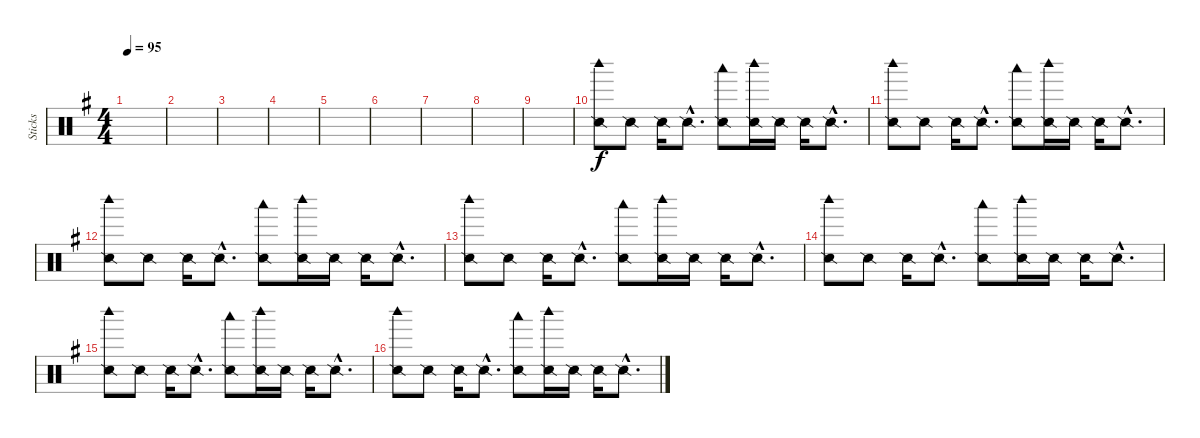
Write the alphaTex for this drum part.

\track ("Sticks" "Sticks") {instrument percussion}
\staff {score}
\articulation defaults
\ts (4 4)
\tempo 95
\clef neutral
\ks g
|
|
|
|
|
|
|
|
|
("Snare (side stick) 2" "Woodblock high (hit)").8 "Snare (side stick) 2".8 "Snare (side stick) 2".16 "Snare (side stick) 2"{hac}.8{d} ("Snare (side stick) 2" "Woodblock low (hit)").8 ("Snare (side stick) 2" "Woodblock high (hit)").16 "Snare (side stick) 2".16 "Snare (side stick) 2".16 "Snare (side stick) 2"{hac}.8{d} |
("Snare (side stick) 2" "Woodblock high (hit)").8 "Snare (side stick) 2".8 "Snare (side stick) 2".16 "Snare (side stick) 2"{hac}.8{d} ("Snare (side stick) 2" "Woodblock low (hit)").8 ("Snare (side stick) 2" "Woodblock high (hit)").16 "Snare (side stick) 2".16 "Snare (side stick) 2".16 "Snare (side stick) 2"{hac}.8{d} |
("Snare (side stick) 2" "Woodblock high (hit)").8 "Snare (side stick) 2".8 "Snare (side stick) 2".16 "Snare (side stick) 2"{hac}.8{d} ("Snare (side stick) 2" "Woodblock low (hit)").8 ("Snare (side stick) 2" "Woodblock high (hit)").16 "Snare (side stick) 2".16 "Snare (side stick) 2".16 "Snare (side stick) 2"{hac}.8{d} |
("Snare (side stick) 2" "Woodblock high (hit)").8 "Snare (side stick) 2".8 "Snare (side stick) 2".16 "Snare (side stick) 2"{hac}.8{d} ("Snare (side stick) 2" "Woodblock low (hit)").8 ("Snare (side stick) 2" "Woodblock high (hit)").16 "Snare (side stick) 2".16 "Snare (side stick) 2".16 "Snare (side stick) 2"{hac}.8{d} |
("Snare (side stick) 2" "Woodblock high (hit)").8 "Snare (side stick) 2".8 "Snare (side stick) 2".16 "Snare (side stick) 2"{hac}.8{d} ("Snare (side stick) 2" "Woodblock low (hit)").8 ("Snare (side stick) 2" "Woodblock high (hit)").16 "Snare (side stick) 2".16 "Snare (side stick) 2".16 "Snare (side stick) 2"{hac}.8{d} |
("Snare (side stick) 2" "Woodblock high (hit)").8 "Snare (side stick) 2".8 "Snare (side stick) 2".16 "Snare (side stick) 2"{hac}.8{d} ("Snare (side stick) 2" "Woodblock low (hit)").8 ("Snare (side stick) 2" "Woodblock high (hit)").16 "Snare (side stick) 2".16 "Snare (side stick) 2".16 "Snare (side stick) 2"{hac}.8{d} |
("Snare (side stick) 2" "Woodblock high (hit)").8 "Snare (side stick) 2".8 "Snare (side stick) 2".16 "Snare (side stick) 2"{hac}.8{d} ("Snare (side stick) 2" "Woodblock low (hit)").8 ("Snare (side stick) 2" "Woodblock high (hit)").16 "Snare (side stick) 2".16 "Snare (side stick) 2".16 "Snare (side stick) 2"{hac}.8{d}
